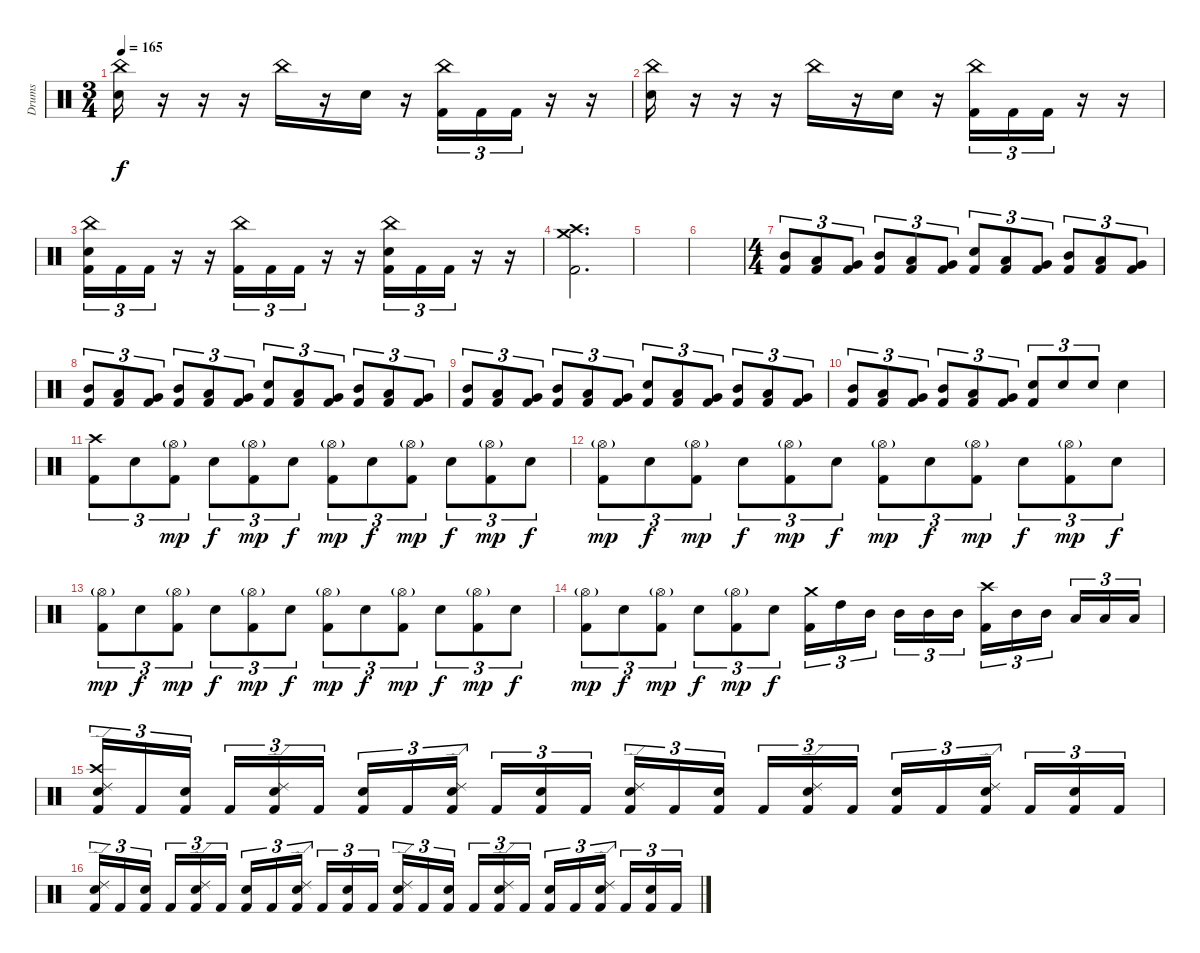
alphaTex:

\track ("Drums" "Drums") {instrument percussion}
\staff {score}
\articulation defaults
\ts (3 4)
\tempo 165
\clef neutral
\ks c
("China (hit)" "Electric Snare (hit)").16{dy f} r.16 r.16 r.16 "China (hit)".16 r.16 "Electric Snare (hit)".16 r.16 ("China (hit)" "Kick (hit) 2").16{tu (3 2)} "Kick (hit) 2".16{tu (3 2)} "Kick (hit) 2".16{tu (3 2)} r.16 r.16 |
("China (hit)" "Electric Snare (hit)").16 r.16 r.16 r.16 "China (hit)".16 r.16 "Electric Snare (hit)".16 r.16 ("China (hit)" "Kick (hit) 2").16{tu (3 2)} "Kick (hit) 2".16{tu (3 2)} "Kick (hit) 2".16{tu (3 2)} r.16 r.16 |
("China (hit)" "Electric Snare (hit)" "Kick (hit) 2").16{tu (3 2)} "Kick (hit) 2".16{tu (3 2)} "Kick (hit) 2".16{tu (3 2)} r.16 r.16 ("China (hit)" "Kick (hit) 2").16{tu (3 2)} "Kick (hit) 2".16{tu (3 2)} "Kick (hit) 2".16{tu (3 2)} r.16 r.16 ("China (hit)" "Electric Snare (hit)" "Kick (hit) 2").16{tu (3 2)} "Kick (hit) 2".16{tu (3 2)} "Kick (hit) 2".16{tu (3 2)} r.16 r.16 |
("Crash high (hit)" "Crash medium (hit)" "Kick (hit) 2").2{d} |
|
|
\ts (4 4)
("Mid Tom (hit)" "Kick (hit) 2").8{tu (3 2)} ("Low Tom (hit)" "Kick (hit) 2").8{tu (3 2)} ("Very Low Tom (hit)" "Kick (hit) 2").8{tu (3 2)} ("Mid Tom (hit)" "Kick (hit) 2").8{tu (3 2)} ("Low Tom (hit)" "Kick (hit) 2").8{tu (3 2)} ("Very Low Tom (hit)" "Kick (hit) 2").8{tu (3 2)} ("Electric Snare (hit)" "Kick (hit) 2").8{tu (3 2)} ("Low Tom (hit)" "Kick (hit) 2").8{tu (3 2)} ("Very Low Tom (hit)" "Kick (hit) 2").8{tu (3 2)} ("Mid Tom (hit)" "Kick (hit) 2").8{tu (3 2)} ("Low Tom (hit)" "Kick (hit) 2").8{tu (3 2)} ("Very Low Tom (hit)" "Kick (hit) 2").8{tu (3 2)} |
("Mid Tom (hit)" "Kick (hit) 2").8{tu (3 2)} ("Low Tom (hit)" "Kick (hit) 2").8{tu (3 2)} ("Very Low Tom (hit)" "Kick (hit) 2").8{tu (3 2)} ("Mid Tom (hit)" "Kick (hit) 2").8{tu (3 2)} ("Low Tom (hit)" "Kick (hit) 2").8{tu (3 2)} ("Very Low Tom (hit)" "Kick (hit) 2").8{tu (3 2)} ("Electric Snare (hit)" "Kick (hit) 2").8{tu (3 2)} ("Low Tom (hit)" "Kick (hit) 2").8{tu (3 2)} ("Very Low Tom (hit)" "Kick (hit) 2").8{tu (3 2)} ("Mid Tom (hit)" "Kick (hit) 2").8{tu (3 2)} ("Low Tom (hit)" "Kick (hit) 2").8{tu (3 2)} ("Very Low Tom (hit)" "Kick (hit) 2").8{tu (3 2)} |
("Mid Tom (hit)" "Kick (hit) 2").8{tu (3 2)} ("Low Tom (hit)" "Kick (hit) 2").8{tu (3 2)} ("Very Low Tom (hit)" "Kick (hit) 2").8{tu (3 2)} ("Mid Tom (hit)" "Kick (hit) 2").8{tu (3 2)} ("Low Tom (hit)" "Kick (hit) 2").8{tu (3 2)} ("Very Low Tom (hit)" "Kick (hit) 2").8{tu (3 2)} ("Electric Snare (hit)" "Kick (hit) 2").8{tu (3 2)} ("Low Tom (hit)" "Kick (hit) 2").8{tu (3 2)} ("Very Low Tom (hit)" "Kick (hit) 2").8{tu (3 2)} ("Mid Tom (hit)" "Kick (hit) 2").8{tu (3 2)} ("Low Tom (hit)" "Kick (hit) 2").8{tu (3 2)} ("Very Low Tom (hit)" "Kick (hit) 2").8{tu (3 2)} |
("Mid Tom (hit)" "Kick (hit) 2").8{tu (3 2)} ("Low Tom (hit)" "Kick (hit) 2").8{tu (3 2)} ("Very Low Tom (hit)" "Kick (hit) 2").8{tu (3 2)} ("Mid Tom (hit)" "Kick (hit) 2").8{tu (3 2)} ("Low Tom (hit)" "Kick (hit) 2").8{tu (3 2)} ("Very Low Tom (hit)" "Kick (hit) 2").8{tu (3 2)} ("Electric Snare (hit)" "Kick (hit) 2").8{tu (3 2)} "Electric Snare (hit)".8{tu (3 2)} "Electric Snare (hit)".8{tu (3 2)} "Electric Snare (hit)".4 |
("Crash high (hit)" "Kick (hit) 2").8{tu (3 2)} "Electric Snare (hit)".8{tu (3 2)} ("Hi-Hat (open)"{g} "Kick (hit) 2").8{tu (3 2) dy mp} "Electric Snare (hit)".8{tu (3 2) dy f} ("Hi-Hat (open)"{g} "Kick (hit) 2").8{tu (3 2) dy mp} "Electric Snare (hit)".8{tu (3 2) dy f} ("Hi-Hat (open)"{g} "Kick (hit) 2").8{tu (3 2) dy mp} "Electric Snare (hit)".8{tu (3 2) dy f} ("Hi-Hat (open)"{g} "Kick (hit) 2").8{tu (3 2) dy mp} "Electric Snare (hit)".8{tu (3 2) dy f} ("Hi-Hat (open)"{g} "Kick (hit) 2").8{tu (3 2) dy mp} "Electric Snare (hit)".8{tu (3 2) dy f} |
("Hi-Hat (open)"{g} "Kick (hit) 2").8{tu (3 2) dy mp} "Electric Snare (hit)".8{tu (3 2) dy f} ("Hi-Hat (open)"{g} "Kick (hit) 2").8{tu (3 2) dy mp} "Electric Snare (hit)".8{tu (3 2) dy f} ("Hi-Hat (open)"{g} "Kick (hit) 2").8{tu (3 2) dy mp} "Electric Snare (hit)".8{tu (3 2) dy f} ("Hi-Hat (open)"{g} "Kick (hit) 2").8{tu (3 2) dy mp} "Electric Snare (hit)".8{tu (3 2) dy f} ("Hi-Hat (open)"{g} "Kick (hit) 2").8{tu (3 2) dy mp} "Electric Snare (hit)".8{tu (3 2) dy f} ("Hi-Hat (open)"{g} "Kick (hit) 2").8{tu (3 2) dy mp} "Electric Snare (hit)".8{tu (3 2) dy f} |
("Hi-Hat (open)"{g} "Kick (hit) 2").8{tu (3 2) dy mp} "Electric Snare (hit)".8{tu (3 2) dy f} ("Hi-Hat (open)"{g} "Kick (hit) 2").8{tu (3 2) dy mp} "Electric Snare (hit)".8{tu (3 2) dy f} ("Hi-Hat (open)"{g} "Kick (hit) 2").8{tu (3 2) dy mp} "Electric Snare (hit)".8{tu (3 2) dy f} ("Hi-Hat (open)"{g} "Kick (hit) 2").8{tu (3 2) dy mp} "Electric Snare (hit)".8{tu (3 2) dy f} ("Hi-Hat (open)"{g} "Kick (hit) 2").8{tu (3 2) dy mp} "Electric Snare (hit)".8{tu (3 2) dy f} ("Hi-Hat (open)"{g} "Kick (hit) 2").8{tu (3 2) dy mp} "Electric Snare (hit)".8{tu (3 2) dy f} |
("Hi-Hat (open)"{g} "Kick (hit) 2").8{tu (3 2) dy mp} "Electric Snare (hit)".8{tu (3 2) dy f} ("Hi-Hat (open)"{g} "Kick (hit) 2").8{tu (3 2) dy mp} "Electric Snare (hit)".8{tu (3 2) dy f} ("Hi-Hat (open)"{g} "Kick (hit) 2").8{tu (3 2) dy mp} "Electric Snare (hit)".8{tu (3 2) dy f} ("Crash medium (hit)" "Kick (hit) 2").16{tu (3 2)} "High Tom (hit)".16{tu (3 2)} "Mid Tom (hit)".16{tu (3 2) beam splitsecondary} "Mid Tom (hit)".16{tu (3 2)} "Mid Tom (hit)".16{tu (3 2)} "Mid Tom (hit)".16{tu (3 2)} ("Crash high (hit)" "Kick (hit) 2").16{tu (3 2)} "Mid Tom (hit)".16{tu (3 2)} "Mid Tom (hit)".16{tu (3 2) beam splitsecondary} "Low Tom (hit)".16{tu (3 2)} "Low Tom (hit)".16{tu (3 2)} "Low Tom (hit)".16{tu (3 2)} |
("Crash high (hit)" "Ride (edge) 2" "Electric Snare (hit)" "Kick (hit) 2").16{tu (3 2)} "Kick (hit) 2".16{tu (3 2)} ("Electric Snare (hit)" "Kick (hit) 2").16{tu (3 2) beam splitsecondary} "Kick (hit) 2".16{tu (3 2)} ("Ride (edge) 2" "Electric Snare (hit)" "Kick (hit) 2").16{tu (3 2)} "Kick (hit) 2".16{tu (3 2)} ("Electric Snare (hit)" "Kick (hit) 2").16{tu (3 2)} "Kick (hit) 2".16{tu (3 2)} ("Ride (edge) 2" "Electric Snare (hit)" "Kick (hit) 2").16{tu (3 2) beam splitsecondary} "Kick (hit) 2".16{tu (3 2)} ("Electric Snare (hit)" "Kick (hit) 2").16{tu (3 2)} "Kick (hit) 2".16{tu (3 2)} ("Ride (edge) 2" "Electric Snare (hit)" "Kick (hit) 2").16{tu (3 2)} "Kick (hit) 2".16{tu (3 2)} ("Electric Snare (hit)" "Kick (hit) 2").16{tu (3 2) beam splitsecondary} "Kick (hit) 2".16{tu (3 2)} ("Ride (edge) 2" "Electric Snare (hit)" "Kick (hit) 2").16{tu (3 2)} "Kick (hit) 2".16{tu (3 2)} ("Electric Snare (hit)" "Kick (hit) 2").16{tu (3 2)} "Kick (hit) 2".16{tu (3 2)} ("Ride (edge) 2" "Electric Snare (hit)" "Kick (hit) 2").16{tu (3 2) beam splitsecondary} "Kick (hit) 2".16{tu (3 2)} ("Electric Snare (hit)" "Kick (hit) 2").16{tu (3 2)} "Kick (hit) 2".16{tu (3 2)} |
("Ride (edge) 2" "Electric Snare (hit)" "Kick (hit) 2").16{tu (3 2)} "Kick (hit) 2".16{tu (3 2)} ("Electric Snare (hit)" "Kick (hit) 2").16{tu (3 2) beam splitsecondary} "Kick (hit) 2".16{tu (3 2)} ("Ride (edge) 2" "Electric Snare (hit)" "Kick (hit) 2").16{tu (3 2)} "Kick (hit) 2".16{tu (3 2)} ("Electric Snare (hit)" "Kick (hit) 2").16{tu (3 2)} "Kick (hit) 2".16{tu (3 2)} ("Ride (edge) 2" "Electric Snare (hit)" "Kick (hit) 2").16{tu (3 2) beam splitsecondary} "Kick (hit) 2".16{tu (3 2)} ("Electric Snare (hit)" "Kick (hit) 2").16{tu (3 2)} "Kick (hit) 2".16{tu (3 2)} ("Ride (edge) 2" "Electric Snare (hit)" "Kick (hit) 2").16{tu (3 2)} "Kick (hit) 2".16{tu (3 2)} ("Electric Snare (hit)" "Kick (hit) 2").16{tu (3 2) beam splitsecondary} "Kick (hit) 2".16{tu (3 2)} ("Ride (edge) 2" "Electric Snare (hit)" "Kick (hit) 2").16{tu (3 2)} "Kick (hit) 2".16{tu (3 2)} ("Electric Snare (hit)" "Kick (hit) 2").16{tu (3 2)} "Kick (hit) 2".16{tu (3 2)} ("Ride (edge) 2" "Electric Snare (hit)" "Kick (hit) 2").16{tu (3 2) beam splitsecondary} "Kick (hit) 2".16{tu (3 2)} ("Electric Snare (hit)" "Kick (hit) 2").16{tu (3 2)} "Kick (hit) 2".16{tu (3 2)}
